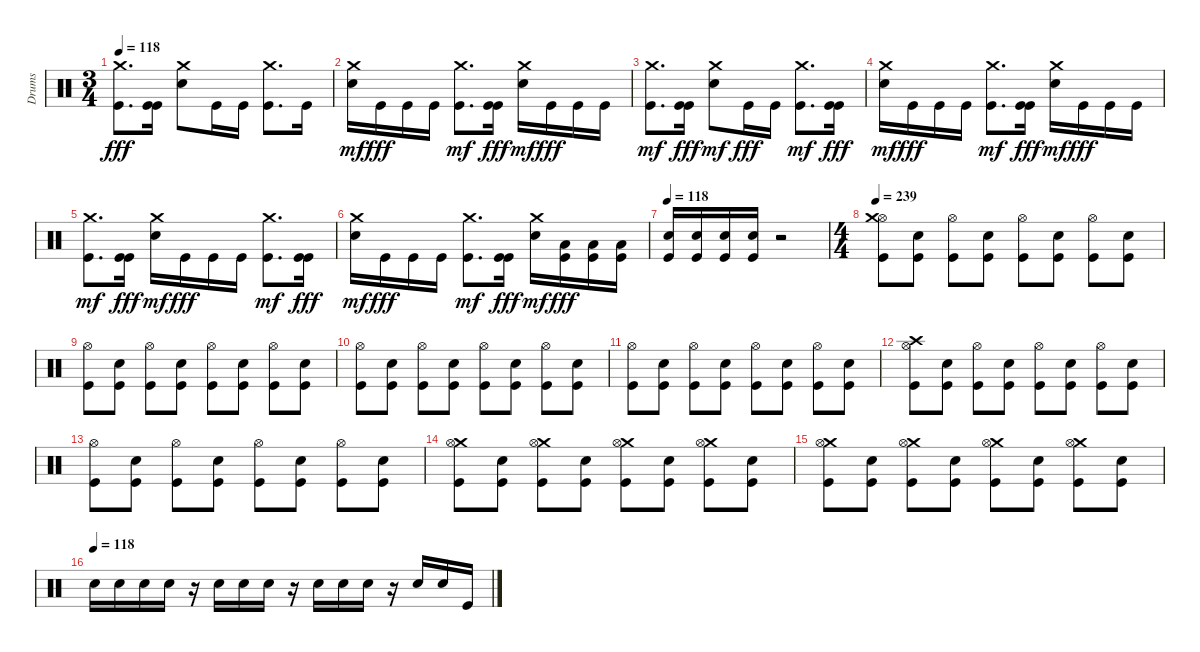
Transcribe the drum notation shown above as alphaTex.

\track ("Drums" "Drums") {instrument percussion}
\staff {score}
\articulation defaults
\ts (3 4)
\tempo 118
\clef neutral
\ks c
("Crash medium (hit)" "Kick (hit)").8{d dy fff} ("Kick (hit)" "Kick (hit)").16 ("Crash medium (hit)" "Electric Snare (hit)").8 "Kick (hit)".16 "Kick (hit)".16 ("Crash medium (hit)" "Kick (hit)").8{d} "Kick (hit)".16 |
("Electric Snare (hit)" "Crash medium (hit)").16{dy mf} "Kick (hit)".16{dy fff} "Kick (hit)".16 "Kick (hit)".16 ("Kick (hit)" "Crash medium (hit)").8{d dy mf} ("Kick (hit)" "Kick (hit)").16{dy fff} ("Electric Snare (hit)" "Crash medium (hit)").16{dy mf} "Kick (hit)".16{dy fff} "Kick (hit)".16 "Kick (hit)".16 |
("Kick (hit)" "Crash medium (hit)").8{d dy mf} ("Kick (hit)" "Kick (hit)").16{dy fff} ("Electric Snare (hit)" "Crash medium (hit)").8{dy mf} "Kick (hit)".16{dy fff} "Kick (hit)".16 ("Kick (hit)" "Crash medium (hit)").8{d dy mf} ("Kick (hit)" "Kick (hit)").16{dy fff} |
("Electric Snare (hit)" "Crash medium (hit)").16{dy mf} "Kick (hit)".16{dy fff} "Kick (hit)".16 "Kick (hit)".16 ("Kick (hit)" "Crash medium (hit)").8{d dy mf} ("Kick (hit)" "Kick (hit)").16{dy fff} ("Electric Snare (hit)" "Crash medium (hit)").16{dy mf} "Kick (hit)".16{dy fff} "Kick (hit)".16 "Kick (hit)".16 |
("Kick (hit)" "Crash medium (hit)").8{d dy mf} ("Kick (hit)" "Kick (hit)").16{dy fff} ("Electric Snare (hit)" "Crash medium (hit)").16{dy mf} "Kick (hit)".16{dy fff} "Kick (hit)".16 "Kick (hit)".16 ("Kick (hit)" "Crash medium (hit)").8{d dy mf} ("Kick (hit)" "Kick (hit)").16{dy fff} |
("Electric Snare (hit)" "Crash medium (hit)").16{dy mf} "Kick (hit)".16{dy fff} "Kick (hit)".16 "Kick (hit)".16 ("Kick (hit)" "Crash medium (hit)").8{d dy mf} ("Kick (hit)" "Kick (hit)").16{dy fff} ("Electric Snare (hit)" "Crash medium (hit)").16{dy mf} ("Kick (hit)" "Low Floor Tom (hit)").16{dy fff} ("Kick (hit)" "Low Floor Tom (hit)").16 ("Low Floor Tom (hit)" "Kick (hit)").16 |
\tempo 118
("Kick (hit)" "Electric Snare (hit)").16 ("Kick (hit)" "Electric Snare (hit)").16 ("Kick (hit)" "Electric Snare (hit)").16 ("Kick (hit)" "Electric Snare (hit)").16 r.2 |
\ts (4 4)
\tempo 239
("Hi-Hat (open)" "Kick (hit)" "Crash medium (hit)").8 ("Electric Snare (hit)" "Kick (hit)").8 ("Hi-Hat (open)" "Kick (hit)").8 ("Electric Snare (hit)" "Kick (hit)").8 ("Hi-Hat (open)" "Kick (hit)").8 ("Electric Snare (hit)" "Kick (hit)").8 ("Hi-Hat (open)" "Kick (hit)").8 ("Electric Snare (hit)" "Kick (hit)").8 |
("Hi-Hat (open)" "Kick (hit)").8 ("Electric Snare (hit)" "Kick (hit)").8 ("Hi-Hat (open)" "Kick (hit)").8 ("Electric Snare (hit)" "Kick (hit)").8 ("Hi-Hat (open)" "Kick (hit)").8 ("Electric Snare (hit)" "Kick (hit)").8 ("Hi-Hat (open)" "Kick (hit)").8 ("Electric Snare (hit)" "Kick (hit)").8 |
("Hi-Hat (open)" "Kick (hit)").8 ("Electric Snare (hit)" "Kick (hit)").8 ("Hi-Hat (open)" "Kick (hit)").8 ("Electric Snare (hit)" "Kick (hit)").8 ("Hi-Hat (open)" "Kick (hit)").8 ("Electric Snare (hit)" "Kick (hit)").8 ("Hi-Hat (open)" "Kick (hit)").8 ("Electric Snare (hit)" "Kick (hit)").8 |
("Hi-Hat (open)" "Kick (hit)").8 ("Electric Snare (hit)" "Kick (hit)").8 ("Hi-Hat (open)" "Kick (hit)").8 ("Electric Snare (hit)" "Kick (hit)").8 ("Hi-Hat (open)" "Kick (hit)").8 ("Electric Snare (hit)" "Kick (hit)").8 ("Hi-Hat (open)" "Kick (hit)").8 ("Electric Snare (hit)" "Kick (hit)").8 |
("Crash high (hit)" "Hi-Hat (open)" "Kick (hit)").8 ("Electric Snare (hit)" "Kick (hit)").8 ("Hi-Hat (open)" "Kick (hit)").8 ("Electric Snare (hit)" "Kick (hit)").8 ("Hi-Hat (open)" "Kick (hit)").8 ("Electric Snare (hit)" "Kick (hit)").8 ("Hi-Hat (open)" "Kick (hit)").8 ("Electric Snare (hit)" "Kick (hit)").8 |
("Hi-Hat (open)" "Kick (hit)").8 ("Electric Snare (hit)" "Kick (hit)").8 ("Hi-Hat (open)" "Kick (hit)").8 ("Electric Snare (hit)" "Kick (hit)").8 ("Hi-Hat (open)" "Kick (hit)").8 ("Electric Snare (hit)" "Kick (hit)").8 ("Hi-Hat (open)" "Kick (hit)").8 ("Electric Snare (hit)" "Kick (hit)").8 |
("Crash medium (hit)" "Hi-Hat (open)" "Kick (hit)").8 ("Electric Snare (hit)" "Kick (hit)").8 ("Crash medium (hit)" "Hi-Hat (open)" "Kick (hit)").8 ("Electric Snare (hit)" "Kick (hit)").8 ("Crash medium (hit)" "Hi-Hat (open)" "Kick (hit)").8 ("Electric Snare (hit)" "Kick (hit)").8 ("Crash medium (hit)" "Hi-Hat (open)" "Kick (hit)").8 ("Electric Snare (hit)" "Kick (hit)").8 |
("Crash medium (hit)" "Hi-Hat (open)" "Kick (hit)").8 ("Electric Snare (hit)" "Kick (hit)").8 ("Crash medium (hit)" "Hi-Hat (open)" "Kick (hit)").8 ("Electric Snare (hit)" "Kick (hit)").8 ("Crash medium (hit)" "Hi-Hat (open)" "Kick (hit)").8 ("Electric Snare (hit)" "Kick (hit)").8 ("Crash medium (hit)" "Hi-Hat (open)" "Kick (hit)").8 ("Electric Snare (hit)" "Kick (hit)").8 |
\tempo (118)
"Electric Snare (hit)".16 "Electric Snare (hit)".16 "Electric Snare (hit)".16 "Electric Snare (hit)".16 r.16 "Electric Snare (hit)".16 "Electric Snare (hit)".16 "Electric Snare (hit)".16 r.16 "Electric Snare (hit)".16 "Electric Snare (hit)".16 "Electric Snare (hit)".16 r.16 "Electric Snare (hit)".16 "Electric Snare (hit)".16 "Kick (hit)".16
